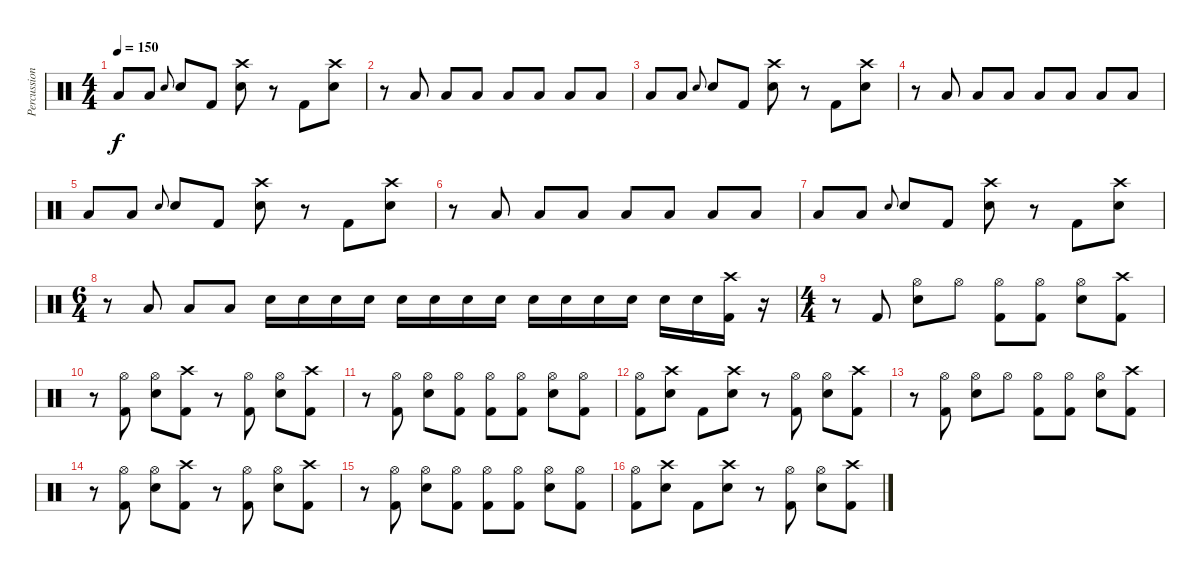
\track ("Percussion" "Percussion") {instrument percussion}
\staff {score}
\articulation defaults
\ts (4 4)
\tempo 150
\clef neutral
\ks c "Low Floor Tom (hit)".8{dy f} "Low Floor Tom (hit)".8 "Electric Snare (hit)".8{gr onbeat} "Electric Snare (hit)".8 "Kick (hit) 2".8
("Crash high (hit)" "Electric Snare (hit)").8 r.8 "Kick (hit) 2".8 ("Crash high (hit)" "Electric Snare (hit)").8 |
r.8 "Low Floor Tom (hit)".8 "Low Floor Tom (hit)".8 "Low Floor Tom (hit)".8 "Low Floor Tom (hit)".8 "Low Floor Tom (hit)".8 "Low Floor Tom (hit)".8 "Low Floor Tom (hit)".8 |
"Low Floor Tom (hit)".8 "Low Floor Tom (hit)".8 "Electric Snare (hit)".8{gr onbeat} "Electric Snare (hit)".8 "Kick (hit) 2".8 ("Crash high (hit)" "Electric Snare (hit)").8 r.8 "Kick (hit) 2".8 ("Crash high (hit)" "Electric Snare (hit)").8 |
r.8 "Low Floor Tom (hit)".8 "Low Floor Tom (hit)".8 "Low Floor Tom (hit)".8 "Low Floor Tom (hit)".8 "Low Floor Tom (hit)".8 "Low Floor Tom (hit)".8 "Low Floor Tom (hit)".8 |
"Low Floor Tom (hit)".8 "Low Floor Tom (hit)".8 "Electric Snare (hit)".8{gr onbeat} "Electric Snare (hit)".8 "Kick (hit) 2".8 ("Crash high (hit)" "Electric Snare (hit)").8 r.8 "Kick (hit) 2".8 ("Crash high (hit)" "Electric Snare (hit)").8 |
r.8 "Low Floor Tom (hit)".8 "Low Floor Tom (hit)".8 "Low Floor Tom (hit)".8 "Low Floor Tom (hit)".8 "Low Floor Tom (hit)".8 "Low Floor Tom (hit)".8 "Low Floor Tom (hit)".8 |
"Low Floor Tom (hit)".8 "Low Floor Tom (hit)".8 "Electric Snare (hit)".8{gr onbeat} "Electric Snare (hit)".8 "Kick (hit) 2".8 ("Crash high (hit)" "Electric Snare (hit)").8 r.8 "Kick (hit) 2".8 ("Crash high (hit)" "Electric Snare (hit)").8 |
\ts (6 4)
r.8 "Low Floor Tom (hit)".8 "Low Floor Tom (hit)".8 "Low Floor Tom (hit)".8 "Electric Snare (hit)".16 "Electric Snare (hit)".16 "Electric Snare (hit)".16 "Electric Snare (hit)".16 "Electric Snare (hit)".16 "Electric Snare (hit)".16 "Electric Snare (hit)".16 "Electric Snare (hit)".16 "Electric Snare (hit)".16 "Electric Snare (hit)".16 "Electric Snare (hit)".16 "Electric Snare (hit)".16 "Electric Snare (hit)".16 "Electric Snare (hit)".16 ("Crash high (hit)" "Kick (hit) 2").16 r.16 |
\ts (4 4)
r.8 "Kick (hit) 2".8 ("Hi-Hat (open)" "Electric Snare (hit)").8 "Hi-Hat (open)".8 ("Hi-Hat (open)" "Kick (hit) 2").8 ("Hi-Hat (open)" "Kick (hit) 2").8 ("Hi-Hat (open)" "Electric Snare (hit)").8 ("Crash high (hit)" "Kick (hit) 2").8 |
r.8 ("Hi-Hat (open)" "Kick (hit) 2").8 ("Hi-Hat (open)" "Electric Snare (hit)").8 ("Crash high (hit)" "Kick (hit) 2").8 r.8 ("Hi-Hat (open)" "Kick (hit) 2").8 ("Hi-Hat (open)" "Electric Snare (hit)").8 ("Crash high (hit)" "Kick (hit) 2").8 |
r.8 ("Hi-Hat (open)" "Kick (hit) 2").8 ("Hi-Hat (open)" "Electric Snare (hit)").8 ("Hi-Hat (open)" "Kick (hit) 2").8 ("Hi-Hat (open)" "Kick (hit) 2").8 ("Hi-Hat (open)" "Kick (hit) 2").8 ("Hi-Hat (open)" "Electric Snare (hit)").8 ("Hi-Hat (open)" "Kick (hit) 2").8 |
("Hi-Hat (open)" "Kick (hit) 2").8 ("Crash high (hit)" "Electric Snare (hit)").8 "Kick (hit) 2".8 ("Crash high (hit)" "Electric Snare (hit)").8 r.8 ("Hi-Hat (open)" "Kick (hit) 2").8 ("Hi-Hat (open)" "Electric Snare (hit)").8 ("Crash high (hit)" "Kick (hit) 2").8 |
r.8 ("Hi-Hat (open)" "Kick (hit) 2").8 ("Hi-Hat (open)" "Electric Snare (hit)").8 "Hi-Hat (open)".8 ("Hi-Hat (open)" "Kick (hit) 2").8 ("Hi-Hat (open)" "Kick (hit) 2").8 ("Hi-Hat (open)" "Electric Snare (hit)").8 ("Crash high (hit)" "Kick (hit) 2").8 |
r.8 ("Hi-Hat (open)" "Kick (hit) 2").8 ("Hi-Hat (open)" "Electric Snare (hit)").8 ("Crash high (hit)" "Kick (hit) 2").8 r.8 ("Hi-Hat (open)" "Kick (hit) 2").8 ("Hi-Hat (open)" "Electric Snare (hit)").8 ("Crash high (hit)" "Kick (hit) 2").8 |
r.8 ("Hi-Hat (open)" "Kick (hit) 2").8 ("Hi-Hat (open)" "Electric Snare (hit)").8 ("Hi-Hat (open)" "Kick (hit) 2").8 ("Hi-Hat (open)" "Kick (hit) 2").8 ("Hi-Hat (open)" "Kick (hit) 2").8 ("Hi-Hat (open)" "Electric Snare (hit)").8 ("Hi-Hat (open)" "Kick (hit) 2").8 |
("Hi-Hat (open)" "Kick (hit) 2").8 ("Crash high (hit)" "Electric Snare (hit)").8 "Kick (hit) 2".8 ("Crash high (hit)" "Electric Snare (hit)").8 r.8 ("Hi-Hat (open)" "Kick (hit) 2").8 ("Hi-Hat (open)" "Electric Snare (hit)").8 ("Crash high (hit)" "Kick (hit) 2").8
